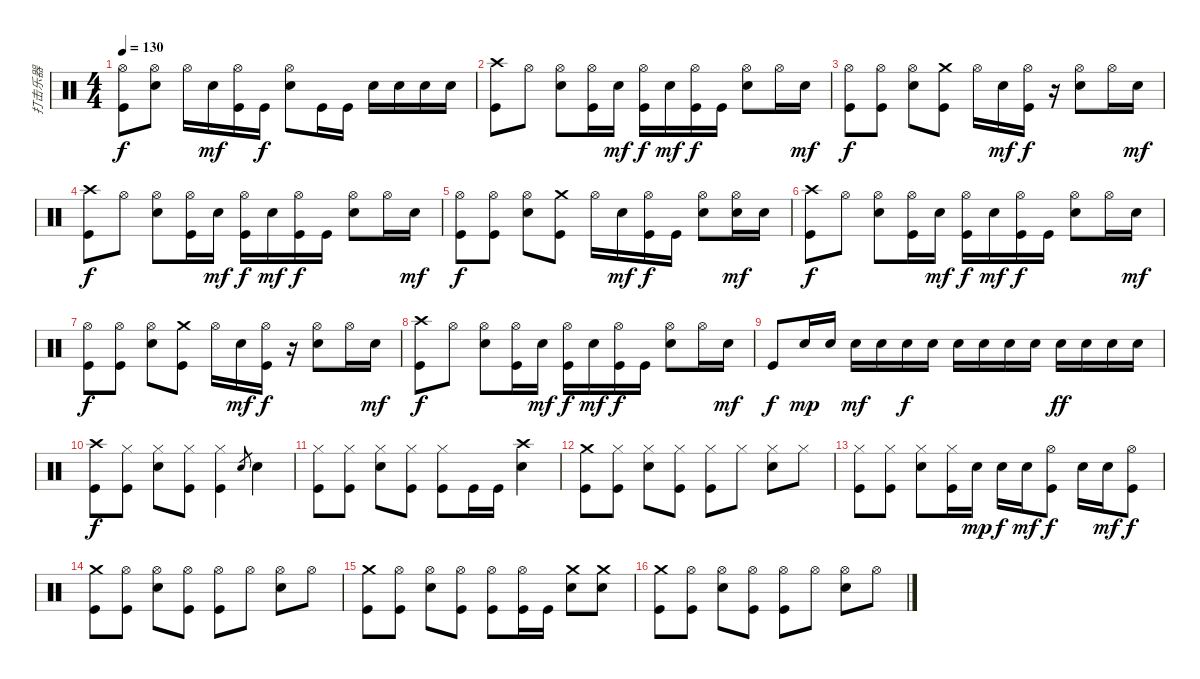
\track ("打击乐器" "打击乐器") {instrument percussion}
\staff {score}
\articulation defaults
\ts (4 4)
\tempo 130
\clef neutral
\ks c
("Hi-Hat (open)" "Kick (hit)").8{dy f} ("Hi-Hat (open)" "Electric Snare (hit)").8 "Hi-Hat (open)".16 "Electric Snare (hit)".16{dy mf} ("Hi-Hat (open)" "Kick (hit)").16 "Kick (hit)".16{dy f} ("Hi-Hat (open)" "Electric Snare (hit)").8 "Kick (hit)".16 "Kick (hit)".16 "Electric Snare (hit)".16 "Electric Snare (hit)".16 "Electric Snare (hit)".16 "Electric Snare (hit)".16 |
("Crash high (hit)" "Kick (hit)").8 "Hi-Hat (open)".8 ("Hi-Hat (open)" "Electric Snare (hit)").8 ("Hi-Hat (open)" "Kick (hit)").16 "Electric Snare (hit)".16{dy mf} ("Hi-Hat (open)" "Kick (hit)").16{dy f} "Electric Snare (hit)".16{dy mf} ("Hi-Hat (open)" "Kick (hit)").16{dy f} "Kick (hit)".16 ("Hi-Hat (open)" "Electric Snare (hit)").8 "Hi-Hat (open)".16 "Electric Snare (hit)".16{dy mf} |
("Hi-Hat (open)" "Kick (hit)").8{dy f} ("Hi-Hat (open)" "Kick (hit)").8 ("Hi-Hat (open)" "Electric Snare (hit)").8 ("Crash medium (hit)" "Kick (hit)").8 "Hi-Hat (open)".16 "Electric Snare (hit)".16{dy mf} ("Hi-Hat (open)" "Kick (hit)").16{dy f} r.16 ("Hi-Hat (open)" "Electric Snare (hit)").8 "Hi-Hat (open)".16 "Electric Snare (hit)".16{dy mf} |
("Crash high (hit)" "Kick (hit)").8{dy f} "Hi-Hat (open)".8 ("Hi-Hat (open)" "Electric Snare (hit)").8 ("Hi-Hat (open)" "Kick (hit)").16 "Electric Snare (hit)".16{dy mf} ("Hi-Hat (open)" "Kick (hit)").16{dy f} "Electric Snare (hit)".16{dy mf} ("Hi-Hat (open)" "Kick (hit)").16{dy f} "Kick (hit)".16 ("Hi-Hat (open)" "Electric Snare (hit)").8 "Hi-Hat (open)".16 "Electric Snare (hit)".16{dy mf} |
("Hi-Hat (open)" "Kick (hit)").8{dy f} ("Hi-Hat (open)" "Kick (hit)").8 ("Hi-Hat (open)" "Electric Snare (hit)").8 ("Crash medium (hit)" "Kick (hit)").8 "Hi-Hat (open)".16 "Electric Snare (hit)".16{dy mf} ("Hi-Hat (open)" "Kick (hit)").16{dy f} "Kick (hit)".16 ("Hi-Hat (open)" "Electric Snare (hit)").8 ("Hi-Hat (open)" "Electric Snare (hit)").16{dy mf} "Electric Snare (hit)".16 |
("Crash high (hit)" "Kick (hit)").8{dy f} "Hi-Hat (open)".8 ("Hi-Hat (open)" "Electric Snare (hit)").8 ("Hi-Hat (open)" "Kick (hit)").16 "Electric Snare (hit)".16{dy mf} ("Hi-Hat (open)" "Kick (hit)").16{dy f} "Electric Snare (hit)".16{dy mf} ("Hi-Hat (open)" "Kick (hit)").16{dy f} "Kick (hit)".16 ("Hi-Hat (open)" "Electric Snare (hit)").8 "Hi-Hat (open)".16 "Electric Snare (hit)".16{dy mf} |
("Hi-Hat (open)" "Kick (hit)").8{dy f} ("Hi-Hat (open)" "Kick (hit)").8 ("Hi-Hat (open)" "Electric Snare (hit)").8 ("Crash medium (hit)" "Kick (hit)").8 "Hi-Hat (open)".16 "Electric Snare (hit)".16{dy mf} ("Hi-Hat (open)" "Kick (hit)").16{dy f} r.16 ("Hi-Hat (open)" "Electric Snare (hit)").8 "Hi-Hat (open)".16 "Electric Snare (hit)".16{dy mf} |
("Crash high (hit)" "Kick (hit)").8{dy f} "Hi-Hat (open)".8 ("Hi-Hat (open)" "Electric Snare (hit)").8 ("Hi-Hat (open)" "Kick (hit)").16 "Electric Snare (hit)".16{dy mf} ("Hi-Hat (open)" "Kick (hit)").16{dy f} "Electric Snare (hit)".16{dy mf} ("Hi-Hat (open)" "Kick (hit)").16{dy f} "Kick (hit)".16 ("Hi-Hat (open)" "Electric Snare (hit)").8 "Hi-Hat (open)".16 "Electric Snare (hit)".16{dy mf} |
"Kick (hit)".8{dy f} "Electric Snare (hit)".16{dy mp} "Electric Snare (hit)".16 "Electric Snare (hit)".16{dy mf} "Electric Snare (hit)".16 "Electric Snare (hit)".16{dy f} "Electric Snare (hit)".16 "Electric Snare (hit)".16 "Electric Snare (hit)".16 "Electric Snare (hit)".16 "Electric Snare (hit)".16 "Electric Snare (hit)".16{dy ff} "Electric Snare (hit)".16 "Electric Snare (hit)".16 "Electric Snare (hit)".16 |
("Crash high (hit)" "Kick (hit)").8{dy f} ("Hi-Hat (closed)" "Kick (hit)").8 ("Hi-Hat (closed)" "Electric Snare (hit)").8 ("Hi-Hat (closed)" "Kick (hit)").8 ("Hi-Hat (closed)" "Kick (hit)").4 "Electric Snare (hit)".8{gr} "Electric Snare (hit)".4 |
("Hi-Hat (closed)" "Kick (hit)").8 ("Hi-Hat (closed)" "Kick (hit)").8 ("Hi-Hat (closed)" "Electric Snare (hit)").8 ("Hi-Hat (closed)" "Kick (hit)").8 ("Hi-Hat (closed)" "Kick (hit)").8 "Kick (hit)".16 "Kick (hit)".16 ("Crash high (hit)" "Electric Snare (hit)").4 |
("Crash medium (hit)" "Kick (hit)").8 ("Hi-Hat (closed)" "Kick (hit)").8 ("Hi-Hat (closed)" "Electric Snare (hit)").8 ("Hi-Hat (closed)" "Kick (hit)").8 ("Hi-Hat (closed)" "Kick (hit)").8 "Hi-Hat (closed)".8 ("Hi-Hat (closed)" "Electric Snare (hit)").8 "Hi-Hat (closed)".8 |
("Hi-Hat (closed)" "Kick (hit)").8 ("Hi-Hat (closed)" "Kick (hit)").8 ("Hi-Hat (closed)" "Electric Snare (hit)").8 ("Hi-Hat (closed)" "Kick (hit)").16 "Electric Snare (hit)".16{dy mp} "Electric Snare (hit)".16{dy f} "Electric Snare (hit)".16{dy mf} ("Hi-Hat (open)" "Kick (hit)").8{dy f} "Electric Snare (hit)".16 "Electric Snare (hit)".16{dy mf} ("Hi-Hat (open)" "Kick (hit)").8{dy f} |
("Crash medium (hit)" "Kick (hit)").8 ("Hi-Hat (open)" "Kick (hit)").8 ("Hi-Hat (open)" "Electric Snare (hit)").8 ("Hi-Hat (open)" "Kick (hit)").8 ("Hi-Hat (open)" "Kick (hit)").8 "Hi-Hat (open)".8 ("Hi-Hat (open)" "Electric Snare (hit)").8 "Hi-Hat (open)".8 |
("Crash medium (hit)" "Kick (hit)").8 ("Hi-Hat (open)" "Kick (hit)").8 ("Hi-Hat (open)" "Electric Snare (hit)").8 ("Hi-Hat (open)" "Kick (hit)").8 ("Hi-Hat (open)" "Kick (hit)").8 ("Hi-Hat (open)" "Kick (hit)").16 "Kick (hit)".16 ("Crash medium (hit)" "Electric Snare (hit)").8 ("Crash medium (hit)" "Electric Snare (hit)").8 |
("Crash medium (hit)" "Kick (hit)").8 ("Hi-Hat (open)" "Kick (hit)").8 ("Hi-Hat (open)" "Electric Snare (hit)").8 ("Hi-Hat (open)" "Kick (hit)").8 ("Hi-Hat (open)" "Kick (hit)").8 "Hi-Hat (open)".8 ("Hi-Hat (open)" "Electric Snare (hit)").8 "Hi-Hat (open)".8
